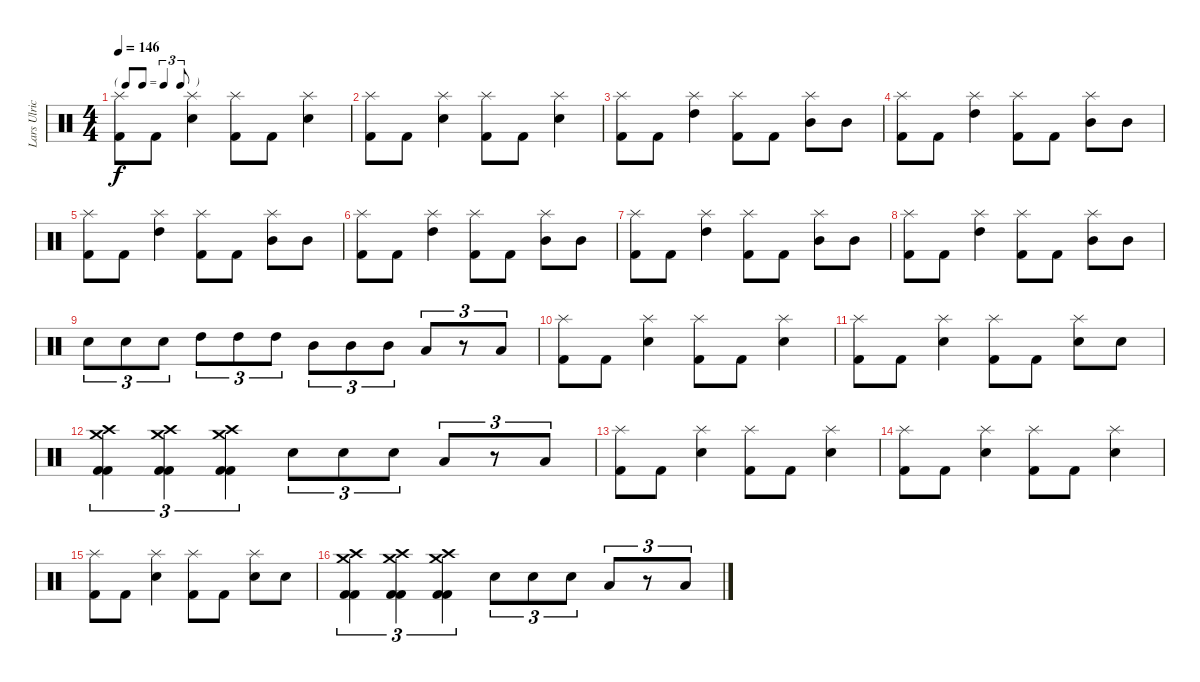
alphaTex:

\track ("Lars Ulrich" "Lars Ulric") {instrument percussion}
\staff {score}
\articulation defaults
\ts (4 4)
\tf triplet8th
\tempo 146
\clef neutral
\ks c
("Splash (hit)" "Kick (hit) 2").8{dy f} "Kick (hit) 2".8 ("Splash (hit)" "Snare (hit) 2").4 ("Splash (hit)" "Kick (hit) 2").8 "Kick (hit) 2".8 ("Splash (hit)" "Snare (hit) 2").4 |
("Splash (hit)" "Kick (hit) 2").8 "Kick (hit) 2".8 ("Splash (hit)" "Snare (hit) 2").4 ("Splash (hit)" "Kick (hit) 2").8 "Kick (hit) 2".8 ("Splash (hit)" "Snare (hit) 2").4 |
("Splash (hit)" "Kick (hit) 2").8 "Kick (hit) 2".8 ("Splash (hit)" "High Tom (hit)").4 ("Splash (hit)" "Kick (hit) 2").8 "Kick (hit) 2".8 ("Splash (hit)" "Mid Tom (hit)").8 "Mid Tom (hit)".8 |
("Splash (hit)" "Kick (hit) 2").8 "Kick (hit) 2".8 ("Splash (hit)" "High Tom (hit)").4 ("Splash (hit)" "Kick (hit) 2").8 "Kick (hit) 2".8 ("Splash (hit)" "Mid Tom (hit)").8 "Mid Tom (hit)".8 |
("Splash (hit)" "Kick (hit) 2").8 "Kick (hit) 2".8 ("Splash (hit)" "High Tom (hit)").4 ("Splash (hit)" "Kick (hit) 2").8 "Kick (hit) 2".8 ("Splash (hit)" "Mid Tom (hit)").8 "Mid Tom (hit)".8 |
("Splash (hit)" "Kick (hit) 2").8 "Kick (hit) 2".8 ("Splash (hit)" "High Tom (hit)").4 ("Splash (hit)" "Kick (hit) 2").8 "Kick (hit) 2".8 ("Splash (hit)" "Mid Tom (hit)").8 "Mid Tom (hit)".8 |
("Splash (hit)" "Kick (hit) 2").8 "Kick (hit) 2".8 ("Splash (hit)" "High Tom (hit)").4 ("Splash (hit)" "Kick (hit) 2").8 "Kick (hit) 2".8 ("Splash (hit)" "Mid Tom (hit)").8 "Mid Tom (hit)".8 |
("Splash (hit)" "Kick (hit) 2").8 "Kick (hit) 2".8 ("Splash (hit)" "High Tom (hit)").4 ("Splash (hit)" "Kick (hit) 2").8 "Kick (hit) 2".8 ("Splash (hit)" "Mid Tom (hit)").8 "Mid Tom (hit)".8 |
"Snare (hit) 2".8{tu (3 2)} "Snare (hit) 2".8{tu (3 2)} "Snare (hit) 2".8{tu (3 2)} "High Tom (hit)".8{tu (3 2)} "High Tom (hit)".8{tu (3 2)} "High Tom (hit)".8{tu (3 2)} "Mid Tom (hit)".8{tu (3 2)} "Mid Tom (hit)".8{tu (3 2)} "Mid Tom (hit)".8{tu (3 2)} "Low Tom (hit)".8{tu (3 2)} r.8{tu (3 2)} "Low Tom (hit)".8{tu (3 2)} |
("Splash (hit)" "Kick (hit) 2").8 "Kick (hit) 2".8 ("Splash (hit)" "Snare (hit) 2").4 ("Splash (hit)" "Kick (hit) 2").8 "Kick (hit) 2".8 ("Splash (hit)" "Snare (hit) 2").4 |
("Splash (hit)" "Kick (hit) 2").8 "Kick (hit) 2".8 ("Splash (hit)" "Snare (hit) 2").4 ("Splash (hit)" "Kick (hit) 2").8 "Kick (hit) 2".8 ("Splash (hit)" "Snare (hit) 2").8 "Snare (hit) 2".8 |
("Crash high (hit)" "Crash medium (hit)" "Kick (hit) 2" "Kick (hit) 2").4{tu (3 2)} ("Crash high (hit)" "Crash medium (hit)" "Kick (hit) 2" "Kick (hit) 2").4{tu (3 2)} ("Crash high (hit)" "Crash medium (hit)" "Kick (hit) 2" "Kick (hit) 2").4{tu (3 2)} "Snare (hit) 2".8{tu (3 2)} "Snare (hit) 2".8{tu (3 2)} "Snare (hit) 2".8{tu (3 2)} "Low Tom (hit)".8{tu (3 2)} r.8{tu (3 2)} "Low Tom (hit)".8{tu (3 2)} |
("Splash (hit)" "Kick (hit) 2").8 "Kick (hit) 2".8 ("Splash (hit)" "Snare (hit) 2").4 ("Splash (hit)" "Kick (hit) 2").8 "Kick (hit) 2".8 ("Splash (hit)" "Snare (hit) 2").4 |
("Splash (hit)" "Kick (hit) 2").8 "Kick (hit) 2".8 ("Splash (hit)" "Snare (hit) 2").4 ("Splash (hit)" "Kick (hit) 2").8 "Kick (hit) 2".8 ("Splash (hit)" "Snare (hit) 2").4 |
("Splash (hit)" "Kick (hit) 2").8 "Kick (hit) 2".8 ("Splash (hit)" "Snare (hit) 2").4 ("Splash (hit)" "Kick (hit) 2").8 "Kick (hit) 2".8 ("Splash (hit)" "Snare (hit) 2").8 "Snare (hit) 2".8 |
("Crash high (hit)" "Crash medium (hit)" "Kick (hit) 2" "Kick (hit) 2").4{tu (3 2)} ("Crash high (hit)" "Crash medium (hit)" "Kick (hit) 2" "Kick (hit) 2").4{tu (3 2)} ("Crash high (hit)" "Crash medium (hit)" "Kick (hit) 2" "Kick (hit) 2").4{tu (3 2)} "Snare (hit) 2".8{tu (3 2)} "Snare (hit) 2".8{tu (3 2)} "Snare (hit) 2".8{tu (3 2)} "Low Tom (hit)".8{tu (3 2)} r.8{tu (3 2)} "Low Tom (hit)".8{tu (3 2)}
